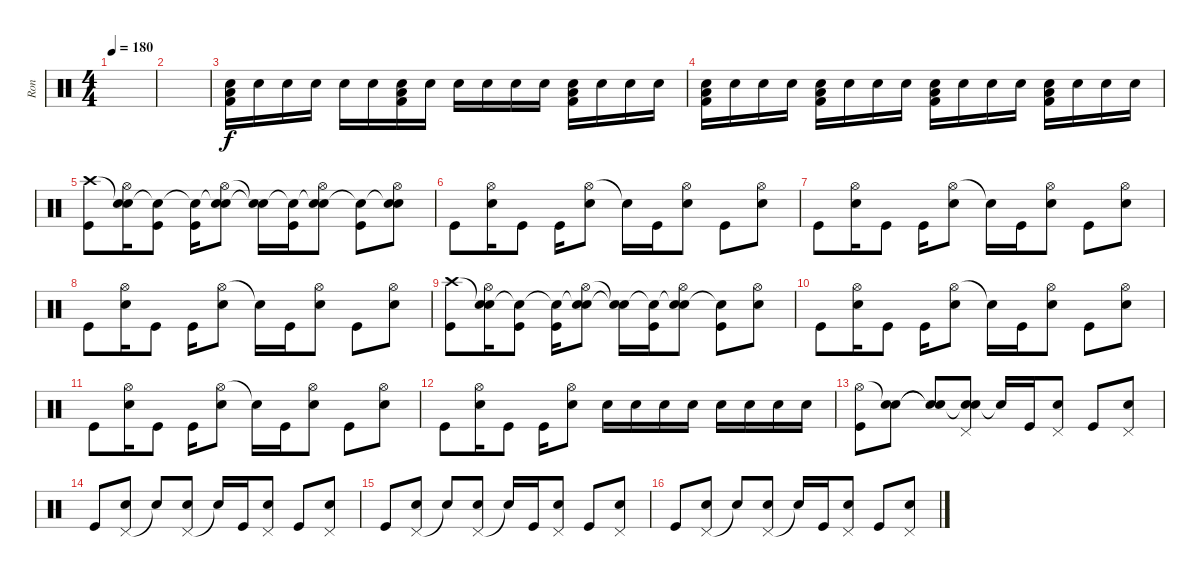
\track ("Ron" "Ron") {instrument percussion}
\staff {score}
\articulation defaults
\ts (4 4)
\tempo 180
\clef neutral
\ks c
|
|
("Low Tom (hit)" "Kick (hit) 2" "Electric Snare (hit)").16 "Electric Snare (hit)".16 "Electric Snare (hit)".16 "Electric Snare (hit)".16 "Electric Snare (hit)".16 "Electric Snare (hit)".16 ("Low Tom (hit)" "Kick (hit) 2" "Electric Snare (hit)").16 "Electric Snare (hit)".16 "Electric Snare (hit)".16 "Electric Snare (hit)".16 "Electric Snare (hit)".16 "Electric Snare (hit)".16 ("Low Tom (hit)" "Kick (hit) 2" "Electric Snare (hit)").16 "Electric Snare (hit)".16 "Electric Snare (hit)".16 "Electric Snare (hit)".16 |
("Low Tom (hit)" "Kick (hit) 2" "Electric Snare (hit)").16 "Electric Snare (hit)".16 "Electric Snare (hit)".16 "Electric Snare (hit)".16 ("Low Tom (hit)" "Kick (hit) 2" "Electric Snare (hit)").16 "Electric Snare (hit)".16 "Electric Snare (hit)".16 "Electric Snare (hit)".16 ("Low Tom (hit)" "Kick (hit) 2" "Electric Snare (hit)").16 "Electric Snare (hit)".16 "Electric Snare (hit)".16 "Electric Snare (hit)".16 ("Low Tom (hit)" "Kick (hit) 2" "Electric Snare (hit)").16 "Electric Snare (hit)".16 "Electric Snare (hit)".16 "Electric Snare (hit)".16 |
("Crash high (hit)" "Kick (hit)").8 ("Snare (hit)"{t} "Hi-Hat (open)" "Electric Snare (hit)").16 ("Snare (hit)"{t} "Kick (hit)").8 ("Snare (hit)"{t} "Kick (hit)").16 ("Snare (hit)"{t} "Hi-Hat (open)" "Electric Snare (hit)").8 ("Snare (hit)"{t} "Snare (hit)"{t}).16 ("Snare (hit)"{t} "Kick (hit)").16 ("Snare (hit)"{t} "Hi-Hat (open)" "Electric Snare (hit)").8 ("Snare (hit)"{t} "Kick (hit)").8 ("Snare (hit)"{t} "Hi-Hat (open)" "Electric Snare (hit)").8 |
"Kick (hit)".8 ("Hi-Hat (open)" "Electric Snare (hit)").16 "Kick (hit)".8 "Kick (hit)".16 ("Hi-Hat (open)" "Electric Snare (hit)").8 "Snare (hit)"{t}.16 "Kick (hit)".16 ("Hi-Hat (open)" "Electric Snare (hit)").8 "Kick (hit)".8 ("Hi-Hat (open)" "Electric Snare (hit)").8 |
"Kick (hit)".8 ("Hi-Hat (open)" "Electric Snare (hit)").16 "Kick (hit)".8 "Kick (hit)".16 ("Hi-Hat (open)" "Electric Snare (hit)").8 "Snare (hit)"{t}.16 "Kick (hit)".16 ("Hi-Hat (open)" "Electric Snare (hit)").8 "Kick (hit)".8 ("Hi-Hat (open)" "Electric Snare (hit)").8 |
"Kick (hit)".8 ("Hi-Hat (open)" "Electric Snare (hit)").16 "Kick (hit)".8 "Kick (hit)".16 ("Hi-Hat (open)" "Electric Snare (hit)").8 "Snare (hit)"{t}.16 "Kick (hit)".16 ("Hi-Hat (open)" "Electric Snare (hit)").8 "Kick (hit)".8 ("Hi-Hat (open)" "Electric Snare (hit)").8 |
("Crash high (hit)" "Kick (hit)").8 ("Snare (hit)"{t} "Hi-Hat (open)" "Electric Snare (hit)").16 ("Snare (hit)"{t} "Kick (hit)").8 ("Snare (hit)"{t} "Kick (hit)").16 ("Snare (hit)"{t} "Hi-Hat (open)" "Electric Snare (hit)").8 ("Snare (hit)"{t} "Snare (hit)"{t}).16 ("Snare (hit)"{t} "Kick (hit)").16 ("Snare (hit)"{t} "Hi-Hat (open)" "Electric Snare (hit)").8 ("Snare (hit)"{t} "Kick (hit)").8 ("Hi-Hat (open)" "Electric Snare (hit)").8 |
"Kick (hit)".8 ("Hi-Hat (open)" "Electric Snare (hit)").16 "Kick (hit)".8 "Kick (hit)".16 ("Hi-Hat (open)" "Electric Snare (hit)").8 "Snare (hit)"{t}.16 "Kick (hit)".16 ("Hi-Hat (open)" "Electric Snare (hit)").8 "Kick (hit)".8 ("Hi-Hat (open)" "Electric Snare (hit)").8 |
"Kick (hit)".8 ("Hi-Hat (open)" "Electric Snare (hit)").16 "Kick (hit)".8 "Kick (hit)".16 ("Hi-Hat (open)" "Electric Snare (hit)").8 "Snare (hit)"{t}.16 "Kick (hit)".16 ("Hi-Hat (open)" "Electric Snare (hit)").8 "Kick (hit)".8 ("Hi-Hat (open)" "Electric Snare (hit)").8 |
"Kick (hit)".8 ("Hi-Hat (open)" "Electric Snare (hit)").16 "Kick (hit)".8 "Kick (hit)".16 ("Hi-Hat (open)" "Electric Snare (hit)").8 "Electric Snare (hit)".16 "Electric Snare (hit)".16 "Electric Snare (hit)".16 "Electric Snare (hit)".16 "Electric Snare (hit)".16 "Electric Snare (hit)".16 "Electric Snare (hit)".16 "Electric Snare (hit)".16 |
("Hi-Hat (open)" "Kick (hit)").8 ("Snare (hit)"{t} "Electric Snare (hit)").8 ("Snare (hit)"{t} "Snare (hit)"{t}).8 ("Snare (hit)"{t} "Pedal Hi-Hat (hit)" "Electric Snare (hit)").8 "Snare (hit)"{t}.16 "Kick (hit)".16 ("Pedal Hi-Hat (hit)" "Electric Snare (hit)").8 "Kick (hit)".8 ("Pedal Hi-Hat (hit)" "Electric Snare (hit)").8 |
"Kick (hit)".8 ("Pedal Hi-Hat (hit)" "Electric Snare (hit)").8 "Snare (hit)"{t}.8 ("Pedal Hi-Hat (hit)" "Electric Snare (hit)").8 "Snare (hit)"{t}.16 "Kick (hit)".16 ("Pedal Hi-Hat (hit)" "Electric Snare (hit)").8 "Kick (hit)".8 ("Pedal Hi-Hat (hit)" "Electric Snare (hit)").8 |
"Kick (hit)".8 ("Pedal Hi-Hat (hit)" "Electric Snare (hit)").8 "Snare (hit)"{t}.8 ("Pedal Hi-Hat (hit)" "Electric Snare (hit)").8 "Snare (hit)"{t}.16 "Kick (hit)".16 ("Pedal Hi-Hat (hit)" "Electric Snare (hit)").8 "Kick (hit)".8 ("Pedal Hi-Hat (hit)" "Electric Snare (hit)").8 |
"Kick (hit)".8 ("Pedal Hi-Hat (hit)" "Electric Snare (hit)").8 "Snare (hit)"{t}.8 ("Pedal Hi-Hat (hit)" "Electric Snare (hit)").8 "Snare (hit)"{t}.16 "Kick (hit)".16 ("Pedal Hi-Hat (hit)" "Electric Snare (hit)").8 "Kick (hit)".8 ("Pedal Hi-Hat (hit)" "Electric Snare (hit)").8
